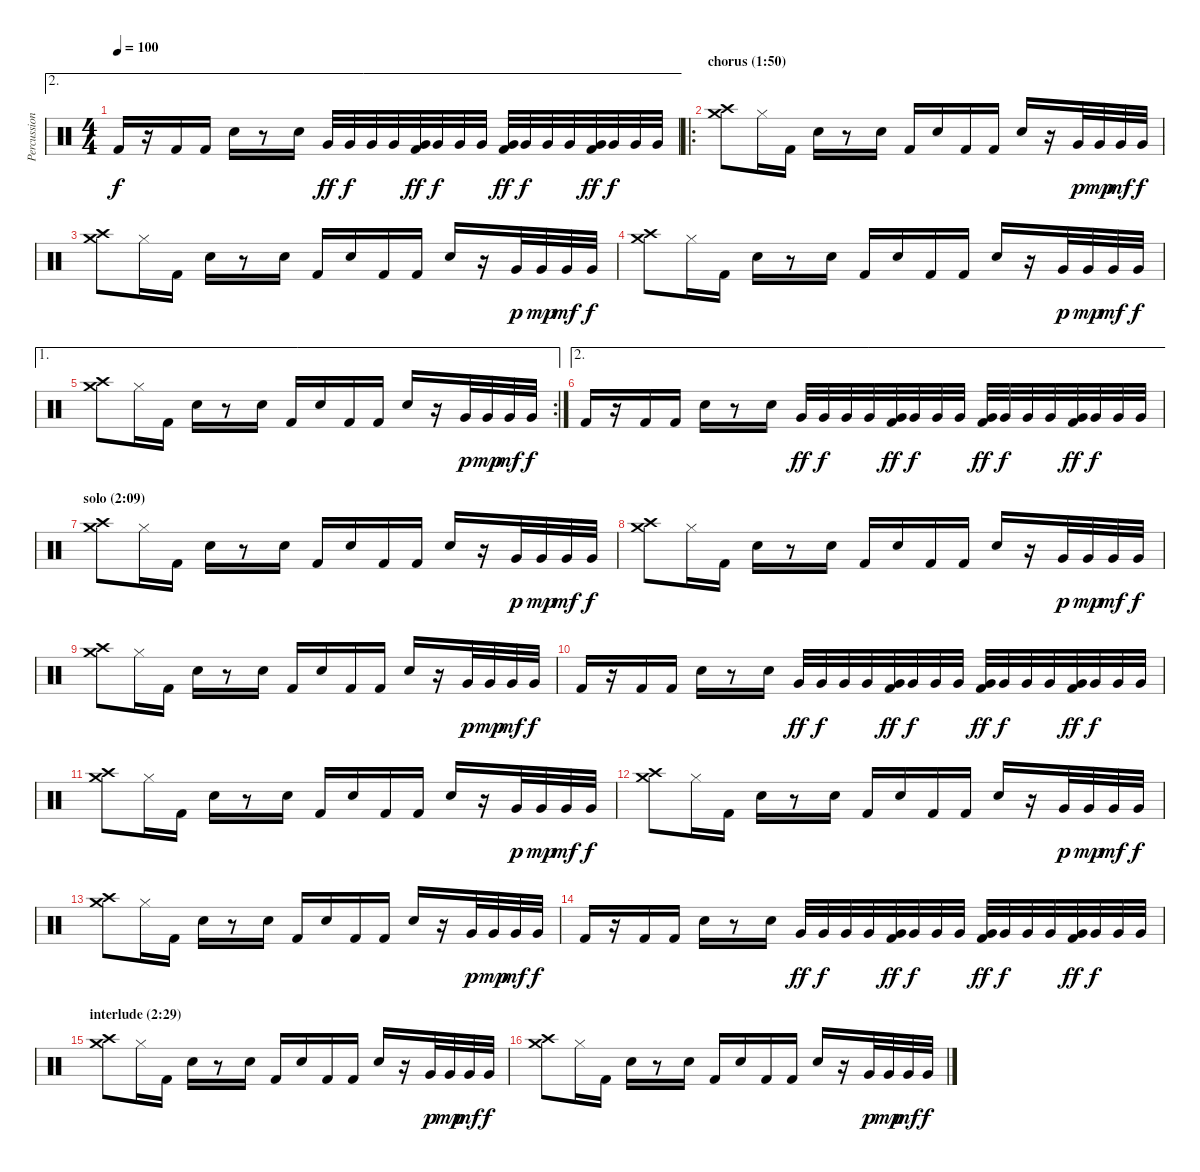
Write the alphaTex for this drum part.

\track ("Percussion (Matt)" "Percussion") {instrument percussion}
\staff {score}
\articulation defaults
\ae 2
\ts (4 4)
\tempo 100
\clef neutral
\ks c "Kick (hit) 2".16{dy f}
r.16 "Kick (hit) 2".16 "Kick (hit) 2".16 "Snare (hit) 2".16 r.8 "Snare (hit) 2".16 "Very Low Tom (hit)".32{dy ff} "Very Low Tom (hit)".32{dy f} "Very Low Tom (hit)".32 "Very Low Tom (hit)".32 ("Very Low Tom (hit)" "Kick (hit) 2").32{dy ff} "Very Low Tom (hit)".32{dy f} "Very Low Tom (hit)".32 "Very Low Tom (hit)".32 ("Very Low Tom (hit)" "Kick (hit) 2").32{dy ff} "Very Low Tom (hit)".32{dy f} "Very Low Tom (hit)".32 "Very Low Tom (hit)".32 ("Very Low Tom (hit)" "Kick (hit) 2").32{dy ff} "Very Low Tom (hit)".32{dy f} "Very Low Tom (hit)".32 "Very Low Tom (hit)".32 |
\ro
\section ("" "chorus (1:50)")
("Crash high (hit)" "Crash medium (hit)").8 "Hi-Hat (closed)".16 "Kick (hit) 2".16 "Snare (hit) 2".16 r.8 "Snare (hit) 2".16 "Kick (hit) 2".16 "Snare (hit) 2".16 "Kick (hit) 2".16 "Kick (hit) 2".16 "Snare (hit) 2".16 r.16 "Very Low Tom (hit)".32{dy p} "Very Low Tom (hit)".32{dy mp} "Very Low Tom (hit)".32{dy mf} "Very Low Tom (hit)".32{dy f} |
("Crash high (hit)" "Crash medium (hit)").8 "Hi-Hat (closed)".16 "Kick (hit) 2".16 "Snare (hit) 2".16 r.8 "Snare (hit) 2".16 "Kick (hit) 2".16 "Snare (hit) 2".16 "Kick (hit) 2".16 "Kick (hit) 2".16 "Snare (hit) 2".16 r.16 "Very Low Tom (hit)".32{dy p} "Very Low Tom (hit)".32{dy mp} "Very Low Tom (hit)".32{dy mf} "Very Low Tom (hit)".32{dy f} |
("Crash high (hit)" "Crash medium (hit)").8 "Hi-Hat (closed)".16 "Kick (hit) 2".16 "Snare (hit) 2".16 r.8 "Snare (hit) 2".16 "Kick (hit) 2".16 "Snare (hit) 2".16 "Kick (hit) 2".16 "Kick (hit) 2".16 "Snare (hit) 2".16 r.16 "Very Low Tom (hit)".32{dy p} "Very Low Tom (hit)".32{dy mp} "Very Low Tom (hit)".32{dy mf} "Very Low Tom (hit)".32{dy f} |
\ae 1
\rc 2
("Crash high (hit)" "Crash medium (hit)").8 "Hi-Hat (closed)".16 "Kick (hit) 2".16 "Snare (hit) 2".16 r.8 "Snare (hit) 2".16 "Kick (hit) 2".16 "Snare (hit) 2".16 "Kick (hit) 2".16 "Kick (hit) 2".16 "Snare (hit) 2".16 r.16 "Very Low Tom (hit)".32{dy p} "Very Low Tom (hit)".32{dy mp} "Very Low Tom (hit)".32{dy mf} "Very Low Tom (hit)".32{dy f} |
\ae 2 "Kick (hit) 2".16
r.16 "Kick (hit) 2".16 "Kick (hit) 2".16 "Snare (hit) 2".16 r.8 "Snare (hit) 2".16 "Very Low Tom (hit)".32{dy ff} "Very Low Tom (hit)".32{dy f} "Very Low Tom (hit)".32 "Very Low Tom (hit)".32 ("Very Low Tom (hit)" "Kick (hit) 2").32{dy ff} "Very Low Tom (hit)".32{dy f} "Very Low Tom (hit)".32 "Very Low Tom (hit)".32 ("Very Low Tom (hit)" "Kick (hit) 2").32{dy ff} "Very Low Tom (hit)".32{dy f} "Very Low Tom (hit)".32 "Very Low Tom (hit)".32 ("Very Low Tom (hit)" "Kick (hit) 2").32{dy ff} "Very Low Tom (hit)".32{dy f} "Very Low Tom (hit)".32 "Very Low Tom (hit)".32 |
\section ("" "solo (2:09)")
("Crash high (hit)" "Crash medium (hit)").8 "Hi-Hat (closed)".16 "Kick (hit) 2".16 "Snare (hit) 2".16 r.8 "Snare (hit) 2".16 "Kick (hit) 2".16 "Snare (hit) 2".16 "Kick (hit) 2".16 "Kick (hit) 2".16 "Snare (hit) 2".16 r.16 "Very Low Tom (hit)".32{dy p} "Very Low Tom (hit)".32{dy mp} "Very Low Tom (hit)".32{dy mf} "Very Low Tom (hit)".32{dy f} |
("Crash high (hit)" "Crash medium (hit)").8 "Hi-Hat (closed)".16 "Kick (hit) 2".16 "Snare (hit) 2".16 r.8 "Snare (hit) 2".16 "Kick (hit) 2".16 "Snare (hit) 2".16 "Kick (hit) 2".16 "Kick (hit) 2".16 "Snare (hit) 2".16 r.16 "Very Low Tom (hit)".32{dy p} "Very Low Tom (hit)".32{dy mp} "Very Low Tom (hit)".32{dy mf} "Very Low Tom (hit)".32{dy f} |
("Crash high (hit)" "Crash medium (hit)").8 "Hi-Hat (closed)".16 "Kick (hit) 2".16 "Snare (hit) 2".16 r.8 "Snare (hit) 2".16 "Kick (hit) 2".16 "Snare (hit) 2".16 "Kick (hit) 2".16 "Kick (hit) 2".16 "Snare (hit) 2".16 r.16 "Very Low Tom (hit)".32{dy p} "Very Low Tom (hit)".32{dy mp} "Very Low Tom (hit)".32{dy mf} "Very Low Tom (hit)".32{dy f} |
"Kick (hit) 2".16 r.16 "Kick (hit) 2".16 "Kick (hit) 2".16 "Snare (hit) 2".16 r.8 "Snare (hit) 2".16 "Very Low Tom (hit)".32{dy ff} "Very Low Tom (hit)".32{dy f} "Very Low Tom (hit)".32 "Very Low Tom (hit)".32 ("Very Low Tom (hit)" "Kick (hit) 2").32{dy ff} "Very Low Tom (hit)".32{dy f} "Very Low Tom (hit)".32 "Very Low Tom (hit)".32 ("Very Low Tom (hit)" "Kick (hit) 2").32{dy ff} "Very Low Tom (hit)".32{dy f} "Very Low Tom (hit)".32 "Very Low Tom (hit)".32 ("Very Low Tom (hit)" "Kick (hit) 2").32{dy ff} "Very Low Tom (hit)".32{dy f} "Very Low Tom (hit)".32 "Very Low Tom (hit)".32 |
("Crash high (hit)" "Crash medium (hit)").8 "Hi-Hat (closed)".16 "Kick (hit) 2".16 "Snare (hit) 2".16 r.8 "Snare (hit) 2".16 "Kick (hit) 2".16 "Snare (hit) 2".16 "Kick (hit) 2".16 "Kick (hit) 2".16 "Snare (hit) 2".16 r.16 "Very Low Tom (hit)".32{dy p} "Very Low Tom (hit)".32{dy mp} "Very Low Tom (hit)".32{dy mf} "Very Low Tom (hit)".32{dy f} |
("Crash high (hit)" "Crash medium (hit)").8 "Hi-Hat (closed)".16 "Kick (hit) 2".16 "Snare (hit) 2".16 r.8 "Snare (hit) 2".16 "Kick (hit) 2".16 "Snare (hit) 2".16 "Kick (hit) 2".16 "Kick (hit) 2".16 "Snare (hit) 2".16 r.16 "Very Low Tom (hit)".32{dy p} "Very Low Tom (hit)".32{dy mp} "Very Low Tom (hit)".32{dy mf} "Very Low Tom (hit)".32{dy f} |
("Crash high (hit)" "Crash medium (hit)").8 "Hi-Hat (closed)".16 "Kick (hit) 2".16 "Snare (hit) 2".16 r.8 "Snare (hit) 2".16 "Kick (hit) 2".16 "Snare (hit) 2".16 "Kick (hit) 2".16 "Kick (hit) 2".16 "Snare (hit) 2".16 r.16 "Very Low Tom (hit)".32{dy p} "Very Low Tom (hit)".32{dy mp} "Very Low Tom (hit)".32{dy mf} "Very Low Tom (hit)".32{dy f} |
"Kick (hit) 2".16 r.16 "Kick (hit) 2".16 "Kick (hit) 2".16 "Snare (hit) 2".16 r.8 "Snare (hit) 2".16 "Very Low Tom (hit)".32{dy ff} "Very Low Tom (hit)".32{dy f} "Very Low Tom (hit)".32 "Very Low Tom (hit)".32 ("Very Low Tom (hit)" "Kick (hit) 2").32{dy ff} "Very Low Tom (hit)".32{dy f} "Very Low Tom (hit)".32 "Very Low Tom (hit)".32 ("Very Low Tom (hit)" "Kick (hit) 2").32{dy ff} "Very Low Tom (hit)".32{dy f} "Very Low Tom (hit)".32 "Very Low Tom (hit)".32 ("Very Low Tom (hit)" "Kick (hit) 2").32{dy ff} "Very Low Tom (hit)".32{dy f} "Very Low Tom (hit)".32 "Very Low Tom (hit)".32 |
\section ("" "interlude (2:29)")
("Crash high (hit)" "Crash medium (hit)").8 "Hi-Hat (closed)".16 "Kick (hit) 2".16 "Snare (hit) 2".16 r.8 "Snare (hit) 2".16 "Kick (hit) 2".16 "Snare (hit) 2".16 "Kick (hit) 2".16 "Kick (hit) 2".16 "Snare (hit) 2".16 r.16 "Very Low Tom (hit)".32{dy p} "Very Low Tom (hit)".32{dy mp} "Very Low Tom (hit)".32{dy mf} "Very Low Tom (hit)".32{dy f} |
("Crash high (hit)" "Crash medium (hit)").8 "Hi-Hat (closed)".16 "Kick (hit) 2".16 "Snare (hit) 2".16 r.8 "Snare (hit) 2".16 "Kick (hit) 2".16 "Snare (hit) 2".16 "Kick (hit) 2".16 "Kick (hit) 2".16 "Snare (hit) 2".16 r.16 "Very Low Tom (hit)".32{dy p} "Very Low Tom (hit)".32{dy mp} "Very Low Tom (hit)".32{dy mf} "Very Low Tom (hit)".32{dy f}
